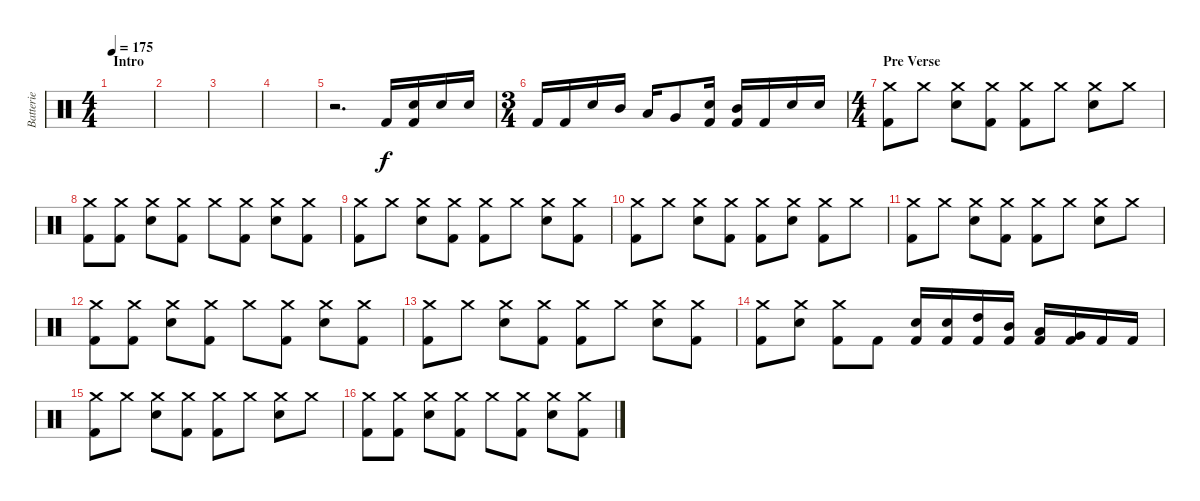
\track ("Batterie" "Batterie") {instrument percussion}
\staff {score}
\articulation defaults
\ts (4 4)
\section ("" "Intro")
\tempo 175
\clef neutral
\ks c
|
|
|
|
r.2{d} "Kick (hit) 2".16 ("Electric Snare (hit)" "Kick (hit) 2").16 "Electric Snare (hit)".16 "Electric Snare (hit)".16 |
\ts (3 4)
"Kick (hit) 2".16 "Kick (hit) 2".16 "Electric Snare (hit)".16 "Mid Tom (hit)".16 "Low Tom (hit)".16 "Very Low Tom (hit)".8 ("Electric Snare (hit)" "Kick (hit) 2").16 ("Mid Tom (hit)" "Kick (hit) 2").16 "Kick (hit) 2".16 "Electric Snare (hit)".16 "Electric Snare (hit)".16 |
\ts (4 4)
\section ("" "Pre Verse")
("Crash medium (hit)" "Kick (hit) 2").8 "Crash medium (hit)".8 ("Crash medium (hit)" "Electric Snare (hit)").8 ("Crash medium (hit)" "Kick (hit) 2").8 ("Crash medium (hit)" "Kick (hit) 2").8 "Crash medium (hit)".8 ("Crash medium (hit)" "Electric Snare (hit)").8 "Crash medium (hit)".8 |
("Crash medium (hit)" "Kick (hit) 2").8 ("Crash medium (hit)" "Kick (hit) 2").8 ("Crash medium (hit)" "Electric Snare (hit)").8 ("Crash medium (hit)" "Kick (hit) 2").8 "Crash medium (hit)".8 ("Crash medium (hit)" "Kick (hit) 2").8 ("Crash medium (hit)" "Electric Snare (hit)").8 ("Crash medium (hit)" "Kick (hit) 2").8 |
("Crash medium (hit)" "Kick (hit) 2").8 "Crash medium (hit)".8 ("Crash medium (hit)" "Electric Snare (hit)").8 ("Crash medium (hit)" "Kick (hit) 2").8 ("Crash medium (hit)" "Kick (hit) 2").8 "Crash medium (hit)".8 ("Crash medium (hit)" "Electric Snare (hit)").8 ("Crash medium (hit)" "Kick (hit) 2").8 |
("Crash medium (hit)" "Kick (hit) 2").8 "Crash medium (hit)".8 ("Crash medium (hit)" "Electric Snare (hit)").8 ("Crash medium (hit)" "Kick (hit) 2").8 ("Crash medium (hit)" "Kick (hit) 2").8 ("Crash medium (hit)" "Electric Snare (hit)").8 ("Crash medium (hit)" "Kick (hit) 2").8 "Crash medium (hit)".8 |
("Crash medium (hit)" "Kick (hit) 2").8 "Crash medium (hit)".8 ("Crash medium (hit)" "Electric Snare (hit)").8 ("Crash medium (hit)" "Kick (hit) 2").8 ("Crash medium (hit)" "Kick (hit) 2").8 "Crash medium (hit)".8 ("Crash medium (hit)" "Electric Snare (hit)").8 "Crash medium (hit)".8 |
("Crash medium (hit)" "Kick (hit) 2").8 ("Crash medium (hit)" "Kick (hit) 2").8 ("Crash medium (hit)" "Electric Snare (hit)").8 ("Crash medium (hit)" "Kick (hit) 2").8 "Crash medium (hit)".8 ("Crash medium (hit)" "Kick (hit) 2").8 ("Crash medium (hit)" "Electric Snare (hit)").8 ("Crash medium (hit)" "Kick (hit) 2").8 |
("Crash medium (hit)" "Kick (hit) 2").8 "Crash medium (hit)".8 ("Crash medium (hit)" "Electric Snare (hit)").8 ("Crash medium (hit)" "Kick (hit) 2").8 ("Crash medium (hit)" "Kick (hit) 2").8 "Crash medium (hit)".8 ("Crash medium (hit)" "Electric Snare (hit)").8 ("Crash medium (hit)" "Kick (hit) 2").8 |
("Crash medium (hit)" "Kick (hit) 2").8 ("Crash medium (hit)" "Electric Snare (hit)").8 ("Crash medium (hit)" "Kick (hit) 2").8 "Kick (hit) 2".8 ("Electric Snare (hit)" "Kick (hit) 2").16 ("Electric Snare (hit)" "Kick (hit) 2").16 ("High Tom (hit)" "Kick (hit) 2").16 ("Mid Tom (hit)" "Kick (hit) 2").16 ("Low Tom (hit)" "Kick (hit) 2").16 ("Very Low Tom (hit)" "Kick (hit) 2").16 "Kick (hit) 2".16 "Kick (hit) 2".16 |
("Crash medium (hit)" "Kick (hit) 2").8 "Crash medium (hit)".8 ("Crash medium (hit)" "Electric Snare (hit)").8 ("Crash medium (hit)" "Kick (hit) 2").8 ("Crash medium (hit)" "Kick (hit) 2").8 "Crash medium (hit)".8 ("Crash medium (hit)" "Electric Snare (hit)").8 "Crash medium (hit)".8 |
("Crash medium (hit)" "Kick (hit) 2").8 ("Crash medium (hit)" "Kick (hit) 2").8 ("Crash medium (hit)" "Electric Snare (hit)").8 ("Crash medium (hit)" "Kick (hit) 2").8 "Crash medium (hit)".8 ("Crash medium (hit)" "Kick (hit) 2").8 ("Crash medium (hit)" "Electric Snare (hit)").8 ("Crash medium (hit)" "Kick (hit) 2").8
